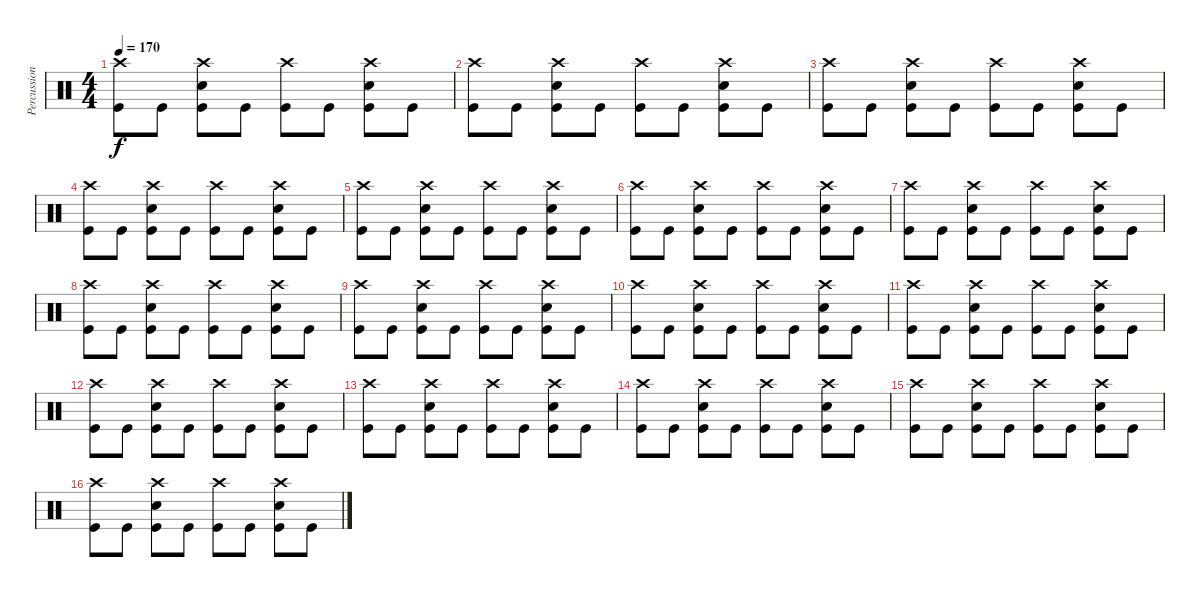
\track ("Percussion" "Percussion") {instrument percussion}
\staff {score}
\articulation defaults
\ts (4 4)
\tempo 170
\clef neutral
\ks c
("Crash high (hit)" "Kick (hit)").8{dy f} "Kick (hit)".8 ("Snare (hit) 2" "Crash high (hit)" "Kick (hit)").8 "Kick (hit)".8 ("Crash high (hit)" "Kick (hit)").8 "Kick (hit)".8 ("Snare (hit) 2" "Crash high (hit)" "Kick (hit)").8 "Kick (hit)".8 |
("Crash high (hit)" "Kick (hit)").8 "Kick (hit)".8 ("Snare (hit) 2" "Crash high (hit)" "Kick (hit)").8 "Kick (hit)".8 ("Crash high (hit)" "Kick (hit)").8 "Kick (hit)".8 ("Snare (hit) 2" "Crash high (hit)" "Kick (hit)").8 "Kick (hit)".8 |
("Crash high (hit)" "Kick (hit)").8 "Kick (hit)".8 ("Snare (hit) 2" "Crash high (hit)" "Kick (hit)").8 "Kick (hit)".8 ("Crash high (hit)" "Kick (hit)").8 "Kick (hit)".8 ("Snare (hit) 2" "Crash high (hit)" "Kick (hit)").8 "Kick (hit)".8 |
("Crash high (hit)" "Kick (hit)").8 "Kick (hit)".8 ("Snare (hit) 2" "Crash high (hit)" "Kick (hit)").8 "Kick (hit)".8 ("Crash high (hit)" "Kick (hit)").8 "Kick (hit)".8 ("Snare (hit) 2" "Crash high (hit)" "Kick (hit)").8 "Kick (hit)".8 |
("Crash high (hit)" "Kick (hit)").8 "Kick (hit)".8 ("Snare (hit) 2" "Crash high (hit)" "Kick (hit)").8 "Kick (hit)".8 ("Crash high (hit)" "Kick (hit)").8 "Kick (hit)".8 ("Snare (hit) 2" "Crash high (hit)" "Kick (hit)").8 "Kick (hit)".8 |
("Crash high (hit)" "Kick (hit)").8 "Kick (hit)".8 ("Snare (hit) 2" "Crash high (hit)" "Kick (hit)").8 "Kick (hit)".8 ("Crash high (hit)" "Kick (hit)").8 "Kick (hit)".8 ("Snare (hit) 2" "Crash high (hit)" "Kick (hit)").8 "Kick (hit)".8 |
("Crash high (hit)" "Kick (hit)").8 "Kick (hit)".8 ("Snare (hit) 2" "Crash high (hit)" "Kick (hit)").8 "Kick (hit)".8 ("Crash high (hit)" "Kick (hit)").8 "Kick (hit)".8 ("Snare (hit) 2" "Crash high (hit)" "Kick (hit)").8 "Kick (hit)".8 |
("Crash high (hit)" "Kick (hit)").8 "Kick (hit)".8 ("Snare (hit) 2" "Crash high (hit)" "Kick (hit)").8 "Kick (hit)".8 ("Crash high (hit)" "Kick (hit)").8 "Kick (hit)".8 ("Snare (hit) 2" "Crash high (hit)" "Kick (hit)").8 "Kick (hit)".8 |
("Crash high (hit)" "Kick (hit)").8 "Kick (hit)".8 ("Snare (hit) 2" "Crash high (hit)" "Kick (hit)").8 "Kick (hit)".8 ("Crash high (hit)" "Kick (hit)").8 "Kick (hit)".8 ("Snare (hit) 2" "Crash high (hit)" "Kick (hit)").8 "Kick (hit)".8 |
("Crash high (hit)" "Kick (hit)").8 "Kick (hit)".8 ("Snare (hit) 2" "Crash high (hit)" "Kick (hit)").8 "Kick (hit)".8 ("Crash high (hit)" "Kick (hit)").8 "Kick (hit)".8 ("Snare (hit) 2" "Crash high (hit)" "Kick (hit)").8 "Kick (hit)".8 |
("Crash high (hit)" "Kick (hit)").8 "Kick (hit)".8 ("Snare (hit) 2" "Crash high (hit)" "Kick (hit)").8 "Kick (hit)".8 ("Crash high (hit)" "Kick (hit)").8 "Kick (hit)".8 ("Snare (hit) 2" "Crash high (hit)" "Kick (hit)").8 "Kick (hit)".8 |
("Crash high (hit)" "Kick (hit)").8 "Kick (hit)".8 ("Snare (hit) 2" "Crash high (hit)" "Kick (hit)").8 "Kick (hit)".8 ("Crash high (hit)" "Kick (hit)").8 "Kick (hit)".8 ("Snare (hit) 2" "Crash high (hit)" "Kick (hit)").8 "Kick (hit)".8 |
("Crash high (hit)" "Kick (hit)").8 "Kick (hit)".8 ("Snare (hit) 2" "Crash high (hit)" "Kick (hit)").8 "Kick (hit)".8 ("Crash high (hit)" "Kick (hit)").8 "Kick (hit)".8 ("Snare (hit) 2" "Crash high (hit)" "Kick (hit)").8 "Kick (hit)".8 |
("Crash high (hit)" "Kick (hit)").8 "Kick (hit)".8 ("Snare (hit) 2" "Crash high (hit)" "Kick (hit)").8 "Kick (hit)".8 ("Crash high (hit)" "Kick (hit)").8 "Kick (hit)".8 ("Snare (hit) 2" "Crash high (hit)" "Kick (hit)").8 "Kick (hit)".8 |
("Crash high (hit)" "Kick (hit)").8 "Kick (hit)".8 ("Snare (hit) 2" "Crash high (hit)" "Kick (hit)").8 "Kick (hit)".8 ("Crash high (hit)" "Kick (hit)").8 "Kick (hit)".8 ("Snare (hit) 2" "Crash high (hit)" "Kick (hit)").8 "Kick (hit)".8 |
("Crash high (hit)" "Kick (hit)").8 "Kick (hit)".8 ("Snare (hit) 2" "Crash high (hit)" "Kick (hit)").8 "Kick (hit)".8 ("Crash high (hit)" "Kick (hit)").8 "Kick (hit)".8 ("Snare (hit) 2" "Crash high (hit)" "Kick (hit)").8 "Kick (hit)".8
